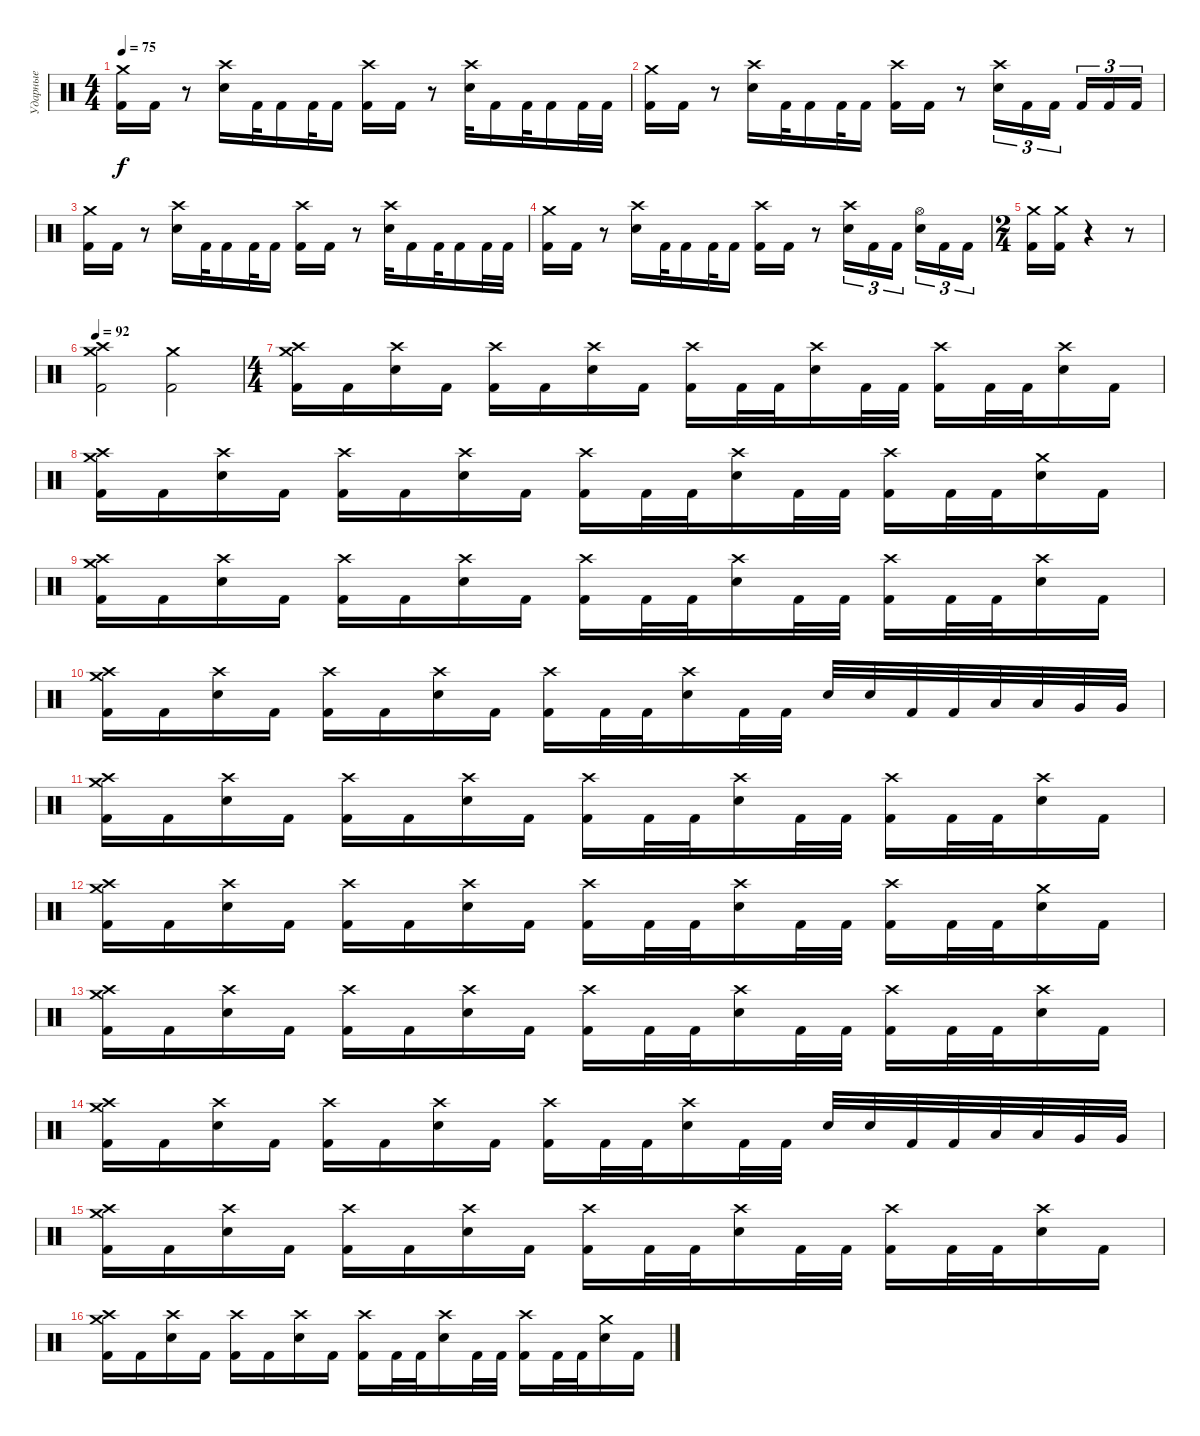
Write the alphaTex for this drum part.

\track ("Ударные" "Ударные") {instrument percussion}
\staff {score}
\articulation defaults
\ts (4 4)
\tempo 75
\clef neutral
\ks c
("Crash medium (hit)" "Kick (hit) 2").16{dy f} "Kick (hit) 2".16 r.8 ("Crash high (hit)" "Electric Snare (hit)").16 "Kick (hit) 2".32 "Kick (hit) 2".16 "Kick (hit) 2".32 "Kick (hit) 2".16 ("Crash high (hit)" "Kick (hit) 2").16 "Kick (hit) 2".16 r.8 ("Crash high (hit)" "Electric Snare (hit)").32 "Kick (hit) 2".16 "Kick (hit) 2".32 "Kick (hit) 2".16 "Kick (hit) 2".32 "Kick (hit) 2".32 |
("Crash medium (hit)" "Kick (hit) 2").16 "Kick (hit) 2".16 r.8 ("Crash high (hit)" "Electric Snare (hit)").16 "Kick (hit) 2".32 "Kick (hit) 2".16 "Kick (hit) 2".32 "Kick (hit) 2".16 ("Crash high (hit)" "Kick (hit) 2").16 "Kick (hit) 2".16 r.8 ("Crash high (hit)" "Electric Snare (hit)").16{tu (3 2)} "Kick (hit) 2".16{tu (3 2)} "Kick (hit) 2".16{tu (3 2)} "Kick (hit) 2".16{tu (3 2)} "Kick (hit) 2".16{tu (3 2)} "Kick (hit) 2".16{tu (3 2)} |
("Crash medium (hit)" "Kick (hit) 2").16 "Kick (hit) 2".16 r.8 ("Crash high (hit)" "Electric Snare (hit)").16 "Kick (hit) 2".32 "Kick (hit) 2".16 "Kick (hit) 2".32 "Kick (hit) 2".16 ("Crash high (hit)" "Kick (hit) 2").16 "Kick (hit) 2".16 r.8 ("Crash high (hit)" "Electric Snare (hit)").32 "Kick (hit) 2".16 "Kick (hit) 2".32 "Kick (hit) 2".16 "Kick (hit) 2".32 "Kick (hit) 2".32 |
("Crash medium (hit)" "Kick (hit) 2").16 "Kick (hit) 2".16 r.8 ("Crash high (hit)" "Electric Snare (hit)").16 "Kick (hit) 2".32 "Kick (hit) 2".16 "Kick (hit) 2".32 "Kick (hit) 2".16 ("Crash high (hit)" "Kick (hit) 2").16 "Kick (hit) 2".16 r.8 ("Crash high (hit)" "Electric Snare (hit)").16{tu (3 2)} "Kick (hit) 2".16{tu (3 2)} "Kick (hit) 2".16{tu (3 2)} ("Hi-Hat (open)" "Electric Snare (hit)").16{tu (3 2)} "Kick (hit) 2".16{tu (3 2)} "Kick (hit) 2".16{tu (3 2)} |
\ts (2 4)
("Crash medium (hit)"{pm} "Kick (hit) 2").16 ("Crash medium (hit)"{pm} "Kick (hit) 2").16 r.4 r.8 |
\tempo 92
("Crash medium (hit)" "Crash high (hit)" "Kick (hit) 2").2 ("Crash medium (hit)"{pm} "Kick (hit) 2").2 |
\ts (4 4)
("Crash medium (hit)" "Crash high (hit)" "Kick (hit) 2").16 "Kick (hit) 2".16 ("Crash high (hit)" "Electric Snare (hit)").16 "Kick (hit) 2".16 ("Crash high (hit)" "Kick (hit) 2").16 "Kick (hit) 2".16 ("Crash high (hit)" "Electric Snare (hit)").16 "Kick (hit) 2".16 ("Crash high (hit)" "Kick (hit) 2").16 "Kick (hit) 2".32 "Kick (hit) 2".32 ("Crash high (hit)" "Electric Snare (hit)").16 "Kick (hit) 2".32 "Kick (hit) 2".32 ("Crash high (hit)" "Kick (hit) 2").16 "Kick (hit) 2".32 "Kick (hit) 2".32 ("Crash high (hit)" "Electric Snare (hit)").16 "Kick (hit) 2".16 |
("Crash medium (hit)" "Crash high (hit)" "Kick (hit) 2").16 "Kick (hit) 2".16 ("Crash high (hit)" "Electric Snare (hit)").16 "Kick (hit) 2".16 ("Crash high (hit)" "Kick (hit) 2").16 "Kick (hit) 2".16 ("Crash high (hit)" "Electric Snare (hit)").16 "Kick (hit) 2".16 ("Crash high (hit)" "Kick (hit) 2").16 "Kick (hit) 2".32 "Kick (hit) 2".32 ("Crash high (hit)" "Electric Snare (hit)").16 "Kick (hit) 2".32 "Kick (hit) 2".32 ("Crash high (hit)" "Kick (hit) 2").16 "Kick (hit) 2".32 "Kick (hit) 2".32 ("Crash medium (hit)" "Electric Snare (hit)").16 "Kick (hit) 2".16 |
("Crash medium (hit)" "Crash high (hit)" "Kick (hit) 2").16 "Kick (hit) 2".16 ("Crash high (hit)" "Electric Snare (hit)").16 "Kick (hit) 2".16 ("Crash high (hit)" "Kick (hit) 2").16 "Kick (hit) 2".16 ("Crash high (hit)" "Electric Snare (hit)").16 "Kick (hit) 2".16 ("Crash high (hit)" "Kick (hit) 2").16 "Kick (hit) 2".32 "Kick (hit) 2".32 ("Crash high (hit)" "Electric Snare (hit)").16 "Kick (hit) 2".32 "Kick (hit) 2".32 ("Crash high (hit)" "Kick (hit) 2").16 "Kick (hit) 2".32 "Kick (hit) 2".32 ("Crash high (hit)" "Electric Snare (hit)").16 "Kick (hit) 2".16 |
("Crash medium (hit)" "Crash high (hit)" "Kick (hit) 2").16 "Kick (hit) 2".16 ("Crash high (hit)" "Electric Snare (hit)").16 "Kick (hit) 2".16 ("Crash high (hit)" "Kick (hit) 2").16 "Kick (hit) 2".16 ("Crash high (hit)" "Electric Snare (hit)").16 "Kick (hit) 2".16 ("Crash high (hit)" "Kick (hit) 2").16 "Kick (hit) 2".32 "Kick (hit) 2".32 ("Crash high (hit)" "Electric Snare (hit)").16 "Kick (hit) 2".32 "Kick (hit) 2".32 "Electric Snare (hit)".32 "Electric Snare (hit)".32 "Kick (hit) 2".32 "Kick (hit) 2".32 "Low Tom (hit)".32 "Low Tom (hit)".32 "Very Low Tom (hit)".32 "Very Low Tom (hit)".32 |
("Crash medium (hit)" "Crash high (hit)" "Kick (hit) 2").16 "Kick (hit) 2".16 ("Crash high (hit)" "Electric Snare (hit)").16 "Kick (hit) 2".16 ("Crash high (hit)" "Kick (hit) 2").16 "Kick (hit) 2".16 ("Crash high (hit)" "Electric Snare (hit)").16 "Kick (hit) 2".16 ("Crash high (hit)" "Kick (hit) 2").16 "Kick (hit) 2".32 "Kick (hit) 2".32 ("Crash high (hit)" "Electric Snare (hit)").16 "Kick (hit) 2".32 "Kick (hit) 2".32 ("Crash high (hit)" "Kick (hit) 2").16 "Kick (hit) 2".32 "Kick (hit) 2".32 ("Crash high (hit)" "Electric Snare (hit)").16 "Kick (hit) 2".16 |
("Crash medium (hit)" "Crash high (hit)" "Kick (hit) 2").16 "Kick (hit) 2".16 ("Crash high (hit)" "Electric Snare (hit)").16 "Kick (hit) 2".16 ("Crash high (hit)" "Kick (hit) 2").16 "Kick (hit) 2".16 ("Crash high (hit)" "Electric Snare (hit)").16 "Kick (hit) 2".16 ("Crash high (hit)" "Kick (hit) 2").16 "Kick (hit) 2".32 "Kick (hit) 2".32 ("Crash high (hit)" "Electric Snare (hit)").16 "Kick (hit) 2".32 "Kick (hit) 2".32 ("Crash high (hit)" "Kick (hit) 2").16 "Kick (hit) 2".32 "Kick (hit) 2".32 ("Crash medium (hit)" "Electric Snare (hit)").16 "Kick (hit) 2".16 |
("Crash medium (hit)" "Crash high (hit)" "Kick (hit) 2").16 "Kick (hit) 2".16 ("Crash high (hit)" "Electric Snare (hit)").16 "Kick (hit) 2".16 ("Crash high (hit)" "Kick (hit) 2").16 "Kick (hit) 2".16 ("Crash high (hit)" "Electric Snare (hit)").16 "Kick (hit) 2".16 ("Crash high (hit)" "Kick (hit) 2").16 "Kick (hit) 2".32 "Kick (hit) 2".32 ("Crash high (hit)" "Electric Snare (hit)").16 "Kick (hit) 2".32 "Kick (hit) 2".32 ("Crash high (hit)" "Kick (hit) 2").16 "Kick (hit) 2".32 "Kick (hit) 2".32 ("Crash high (hit)" "Electric Snare (hit)").16 "Kick (hit) 2".16 |
("Crash medium (hit)" "Crash high (hit)" "Kick (hit) 2").16 "Kick (hit) 2".16 ("Crash high (hit)" "Electric Snare (hit)").16 "Kick (hit) 2".16 ("Crash high (hit)" "Kick (hit) 2").16 "Kick (hit) 2".16 ("Crash high (hit)" "Electric Snare (hit)").16 "Kick (hit) 2".16 ("Crash high (hit)" "Kick (hit) 2").16 "Kick (hit) 2".32 "Kick (hit) 2".32 ("Crash high (hit)" "Electric Snare (hit)").16 "Kick (hit) 2".32 "Kick (hit) 2".32 "Electric Snare (hit)".32 "Electric Snare (hit)".32 "Kick (hit) 2".32 "Kick (hit) 2".32 "Low Tom (hit)".32 "Low Tom (hit)".32 "Very Low Tom (hit)".32 "Very Low Tom (hit)".32 |
("Crash medium (hit)" "Crash high (hit)" "Kick (hit) 2").16 "Kick (hit) 2".16 ("Crash high (hit)" "Electric Snare (hit)").16 "Kick (hit) 2".16 ("Crash high (hit)" "Kick (hit) 2").16 "Kick (hit) 2".16 ("Crash high (hit)" "Electric Snare (hit)").16 "Kick (hit) 2".16 ("Crash high (hit)" "Kick (hit) 2").16 "Kick (hit) 2".32 "Kick (hit) 2".32 ("Crash high (hit)" "Electric Snare (hit)").16 "Kick (hit) 2".32 "Kick (hit) 2".32 ("Crash high (hit)" "Kick (hit) 2").16 "Kick (hit) 2".32 "Kick (hit) 2".32 ("Crash high (hit)" "Electric Snare (hit)").16 "Kick (hit) 2".16 |
("Crash medium (hit)" "Crash high (hit)" "Kick (hit) 2").16 "Kick (hit) 2".16 ("Crash high (hit)" "Electric Snare (hit)").16 "Kick (hit) 2".16 ("Crash high (hit)" "Kick (hit) 2").16 "Kick (hit) 2".16 ("Crash high (hit)" "Electric Snare (hit)").16 "Kick (hit) 2".16 ("Crash high (hit)" "Kick (hit) 2").16 "Kick (hit) 2".32 "Kick (hit) 2".32 ("Crash high (hit)" "Electric Snare (hit)").16 "Kick (hit) 2".32 "Kick (hit) 2".32 ("Crash high (hit)" "Kick (hit) 2").16 "Kick (hit) 2".32 "Kick (hit) 2".32 ("Crash medium (hit)" "Electric Snare (hit)").16 "Kick (hit) 2".16
